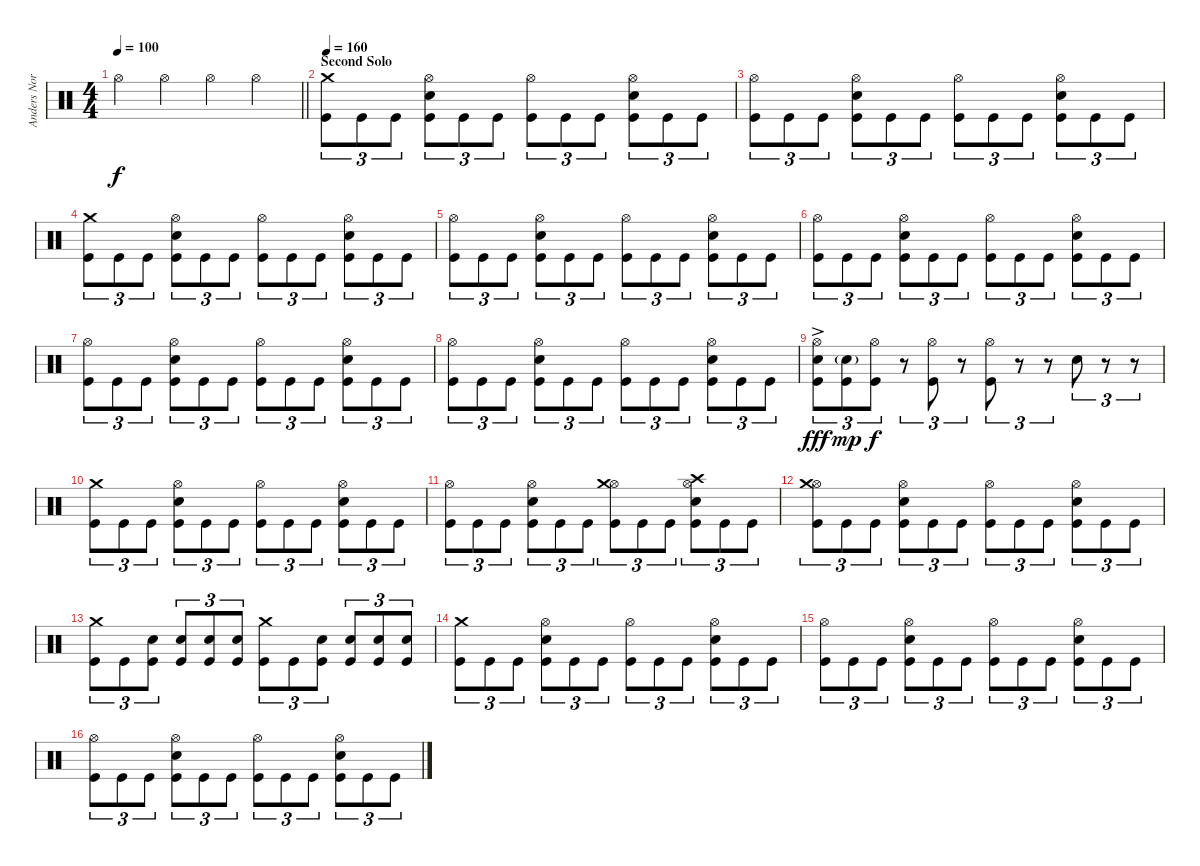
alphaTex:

\track ("Anders Nordin" "Anders Nor") {instrument percussion}
\staff {score}
\articulation defaults
\ts (4 4)
\tempo 100
\clef neutral
\barLineRight lightlight
\ks c "Hi-Hat (open)".4{dy f} "Hi-Hat (open)".4 "Hi-Hat (open)".4 "Hi-Hat (open)".4
|
\section ("" "Second Solo")
\tempo 160
("Crash medium (hit)" "Kick (hit)").8{tu (3 2)} "Kick (hit)".8{tu (3 2)} "Kick (hit)".8{tu (3 2)} ("Hi-Hat (open)" "Electric Snare (hit)" "Kick (hit)").8{tu (3 2)} "Kick (hit)".8{tu (3 2)} "Kick (hit)".8{tu (3 2)} ("Hi-Hat (open)" "Kick (hit)").8{tu (3 2)} "Kick (hit)".8{tu (3 2)} "Kick (hit)".8{tu (3 2)} ("Hi-Hat (open)" "Electric Snare (hit)" "Kick (hit)").8{tu (3 2)} "Kick (hit)".8{tu (3 2)} "Kick (hit)".8{tu (3 2)} |
("Hi-Hat (open)" "Kick (hit)").8{tu (3 2)} "Kick (hit)".8{tu (3 2)} "Kick (hit)".8{tu (3 2)} ("Hi-Hat (open)" "Electric Snare (hit)" "Kick (hit)").8{tu (3 2)} "Kick (hit)".8{tu (3 2)} "Kick (hit)".8{tu (3 2)} ("Hi-Hat (open)" "Kick (hit)").8{tu (3 2)} "Kick (hit)".8{tu (3 2)} "Kick (hit)".8{tu (3 2)} ("Hi-Hat (open)" "Electric Snare (hit)" "Kick (hit)").8{tu (3 2)} "Kick (hit)".8{tu (3 2)} "Kick (hit)".8{tu (3 2)} |
("Crash medium (hit)" "Kick (hit)").8{tu (3 2)} "Kick (hit)".8{tu (3 2)} "Kick (hit)".8{tu (3 2)} ("Hi-Hat (open)" "Electric Snare (hit)" "Kick (hit)").8{tu (3 2)} "Kick (hit)".8{tu (3 2)} "Kick (hit)".8{tu (3 2)} ("Hi-Hat (open)" "Kick (hit)").8{tu (3 2)} "Kick (hit)".8{tu (3 2)} "Kick (hit)".8{tu (3 2)} ("Hi-Hat (open)" "Electric Snare (hit)" "Kick (hit)").8{tu (3 2)} "Kick (hit)".8{tu (3 2)} "Kick (hit)".8{tu (3 2)} |
("Hi-Hat (open)" "Kick (hit)").8{tu (3 2)} "Kick (hit)".8{tu (3 2)} "Kick (hit)".8{tu (3 2)} ("Hi-Hat (open)" "Electric Snare (hit)" "Kick (hit)").8{tu (3 2)} "Kick (hit)".8{tu (3 2)} "Kick (hit)".8{tu (3 2)} ("Hi-Hat (open)" "Kick (hit)").8{tu (3 2)} "Kick (hit)".8{tu (3 2)} "Kick (hit)".8{tu (3 2)} ("Hi-Hat (open)" "Electric Snare (hit)" "Kick (hit)").8{tu (3 2)} "Kick (hit)".8{tu (3 2)} "Kick (hit)".8{tu (3 2)} |
("Hi-Hat (open)" "Kick (hit)").8{tu (3 2)} "Kick (hit)".8{tu (3 2)} "Kick (hit)".8{tu (3 2)} ("Hi-Hat (open)" "Electric Snare (hit)" "Kick (hit)").8{tu (3 2)} "Kick (hit)".8{tu (3 2)} "Kick (hit)".8{tu (3 2)} ("Hi-Hat (open)" "Kick (hit)").8{tu (3 2)} "Kick (hit)".8{tu (3 2)} "Kick (hit)".8{tu (3 2)} ("Hi-Hat (open)" "Electric Snare (hit)" "Kick (hit)").8{tu (3 2)} "Kick (hit)".8{tu (3 2)} "Kick (hit)".8{tu (3 2)} |
("Hi-Hat (open)" "Kick (hit)").8{tu (3 2)} "Kick (hit)".8{tu (3 2)} "Kick (hit)".8{tu (3 2)} ("Hi-Hat (open)" "Electric Snare (hit)" "Kick (hit)").8{tu (3 2)} "Kick (hit)".8{tu (3 2)} "Kick (hit)".8{tu (3 2)} ("Hi-Hat (open)" "Kick (hit)").8{tu (3 2)} "Kick (hit)".8{tu (3 2)} "Kick (hit)".8{tu (3 2)} ("Hi-Hat (open)" "Electric Snare (hit)" "Kick (hit)").8{tu (3 2)} "Kick (hit)".8{tu (3 2)} "Kick (hit)".8{tu (3 2)} |
("Hi-Hat (open)" "Kick (hit)").8{tu (3 2)} "Kick (hit)".8{tu (3 2)} "Kick (hit)".8{tu (3 2)} ("Hi-Hat (open)" "Electric Snare (hit)" "Kick (hit)").8{tu (3 2)} "Kick (hit)".8{tu (3 2)} "Kick (hit)".8{tu (3 2)} ("Hi-Hat (open)" "Kick (hit)").8{tu (3 2)} "Kick (hit)".8{tu (3 2)} "Kick (hit)".8{tu (3 2)} ("Hi-Hat (open)" "Electric Snare (hit)" "Kick (hit)").8{tu (3 2)} "Kick (hit)".8{tu (3 2)} "Kick (hit)".8{tu (3 2)} |
("Hi-Hat (open)" "Electric Snare (hit)"{ac} "Kick (hit)").8{tu (3 2) dy fff} ("Electric Snare (hit)"{g} "Kick (hit)").8{tu (3 2) dy mp} ("Hi-Hat (open)" "Kick (hit)").8{tu (3 2) dy f} r.8{tu (3 2)} ("Hi-Hat (open)" "Kick (hit)").8{tu (3 2)} r.8{tu (3 2)} ("Hi-Hat (open)" "Kick (hit)").8{tu (3 2)} r.8{tu (3 2)} r.8{tu (3 2)} "Electric Snare (hit)".8{tu (3 2)} r.8{tu (3 2)} r.8{tu (3 2)} |
("Crash medium (hit)" "Kick (hit)").8{tu (3 2)} "Kick (hit)".8{tu (3 2)} "Kick (hit)".8{tu (3 2)} ("Hi-Hat (open)" "Electric Snare (hit)" "Kick (hit)").8{tu (3 2)} "Kick (hit)".8{tu (3 2)} "Kick (hit)".8{tu (3 2)} ("Hi-Hat (open)" "Kick (hit)").8{tu (3 2)} "Kick (hit)".8{tu (3 2)} "Kick (hit)".8{tu (3 2)} ("Hi-Hat (open)" "Electric Snare (hit)" "Kick (hit)").8{tu (3 2)} "Kick (hit)".8{tu (3 2)} "Kick (hit)".8{tu (3 2)} |
("Hi-Hat (open)" "Kick (hit)").8{tu (3 2)} "Kick (hit)".8{tu (3 2)} "Kick (hit)".8{tu (3 2)} ("Hi-Hat (open)" "Electric Snare (hit)" "Kick (hit)").8{tu (3 2)} "Kick (hit)".8{tu (3 2)} "Kick (hit)".8{tu (3 2)} ("Hi-Hat (open)" "Crash medium (hit)" "Kick (hit)").8{tu (3 2)} "Kick (hit)".8{tu (3 2)} "Kick (hit)".8{tu (3 2)} ("Hi-Hat (open)" "Crash high (hit)" "Electric Snare (hit)" "Kick (hit)").8{tu (3 2)} "Kick (hit)".8{tu (3 2)} "Kick (hit)".8{tu (3 2)} |
("Hi-Hat (open)" "Crash medium (hit)" "Kick (hit)").8{tu (3 2)} "Kick (hit)".8{tu (3 2)} "Kick (hit)".8{tu (3 2)} ("Hi-Hat (open)" "Electric Snare (hit)" "Kick (hit)").8{tu (3 2)} "Kick (hit)".8{tu (3 2)} "Kick (hit)".8{tu (3 2)} ("Hi-Hat (open)" "Kick (hit)").8{tu (3 2)} "Kick (hit)".8{tu (3 2)} "Kick (hit)".8{tu (3 2)} ("Hi-Hat (open)" "Electric Snare (hit)" "Kick (hit)").8{tu (3 2)} "Kick (hit)".8{tu (3 2)} "Kick (hit)".8{tu (3 2)} |
("Crash medium (hit)" "Kick (hit)").8{tu (3 2)} "Kick (hit)".8{tu (3 2)} ("Electric Snare (hit)" "Kick (hit)").8{tu (3 2)} ("Electric Snare (hit)" "Kick (hit)").8{tu (3 2)} ("Electric Snare (hit)" "Kick (hit)").8{tu (3 2)} ("Electric Snare (hit)" "Kick (hit)").8{tu (3 2)} ("Crash medium (hit)" "Kick (hit)").8{tu (3 2)} "Kick (hit)".8{tu (3 2)} ("Electric Snare (hit)" "Kick (hit)").8{tu (3 2)} ("Electric Snare (hit)" "Kick (hit)").8{tu (3 2)} ("Electric Snare (hit)" "Kick (hit)").8{tu (3 2)} ("Electric Snare (hit)" "Kick (hit)").8{tu (3 2)} |
("Crash medium (hit)" "Kick (hit)").8{tu (3 2)} "Kick (hit)".8{tu (3 2)} "Kick (hit)".8{tu (3 2)} ("Hi-Hat (open)" "Electric Snare (hit)" "Kick (hit)").8{tu (3 2)} "Kick (hit)".8{tu (3 2)} "Kick (hit)".8{tu (3 2)} ("Hi-Hat (open)" "Kick (hit)").8{tu (3 2)} "Kick (hit)".8{tu (3 2)} "Kick (hit)".8{tu (3 2)} ("Hi-Hat (open)" "Electric Snare (hit)" "Kick (hit)").8{tu (3 2)} "Kick (hit)".8{tu (3 2)} "Kick (hit)".8{tu (3 2)} |
("Hi-Hat (open)" "Kick (hit)").8{tu (3 2)} "Kick (hit)".8{tu (3 2)} "Kick (hit)".8{tu (3 2)} ("Hi-Hat (open)" "Electric Snare (hit)" "Kick (hit)").8{tu (3 2)} "Kick (hit)".8{tu (3 2)} "Kick (hit)".8{tu (3 2)} ("Hi-Hat (open)" "Kick (hit)").8{tu (3 2)} "Kick (hit)".8{tu (3 2)} "Kick (hit)".8{tu (3 2)} ("Hi-Hat (open)" "Electric Snare (hit)" "Kick (hit)").8{tu (3 2)} "Kick (hit)".8{tu (3 2)} "Kick (hit)".8{tu (3 2)} |
("Hi-Hat (open)" "Kick (hit)").8{tu (3 2)} "Kick (hit)".8{tu (3 2)} "Kick (hit)".8{tu (3 2)} ("Hi-Hat (open)" "Electric Snare (hit)" "Kick (hit)").8{tu (3 2)} "Kick (hit)".8{tu (3 2)} "Kick (hit)".8{tu (3 2)} ("Hi-Hat (open)" "Kick (hit)").8{tu (3 2)} "Kick (hit)".8{tu (3 2)} "Kick (hit)".8{tu (3 2)} ("Hi-Hat (open)" "Electric Snare (hit)" "Kick (hit)").8{tu (3 2)} "Kick (hit)".8{tu (3 2)} "Kick (hit)".8{tu (3 2)}
